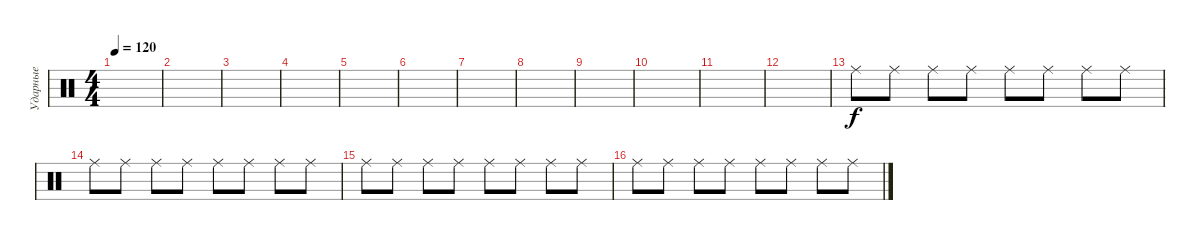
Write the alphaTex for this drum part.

\track ("Ударные" "Ударные") {instrument percussion}
\staff {score}
\articulation defaults
\ts (4 4)
\tempo 120
\clef neutral
\ks c
|
|
|
|
|
|
|
|
|
|
|
|
"Ride (middle)".8 "Ride (middle)".8 "Ride (middle)".8 "Ride (middle)".8 "Ride (middle)".8 "Ride (middle)".8 "Ride (middle)".8 "Ride (middle)".8 |
"Ride (middle)".8 "Ride (middle)".8 "Ride (middle)".8 "Ride (middle)".8 "Ride (middle)".8 "Ride (middle)".8 "Ride (middle)".8 "Ride (middle)".8 |
"Ride (middle)".8 "Ride (middle)".8 "Ride (middle)".8 "Ride (middle)".8 "Ride (middle)".8 "Ride (middle)".8 "Ride (middle)".8 "Ride (middle)".8 |
"Ride (middle)".8 "Ride (middle)".8 "Ride (middle)".8 "Ride (middle)".8 "Ride (middle)".8 "Ride (middle)".8 "Ride (middle)".8 "Ride (middle)".8
